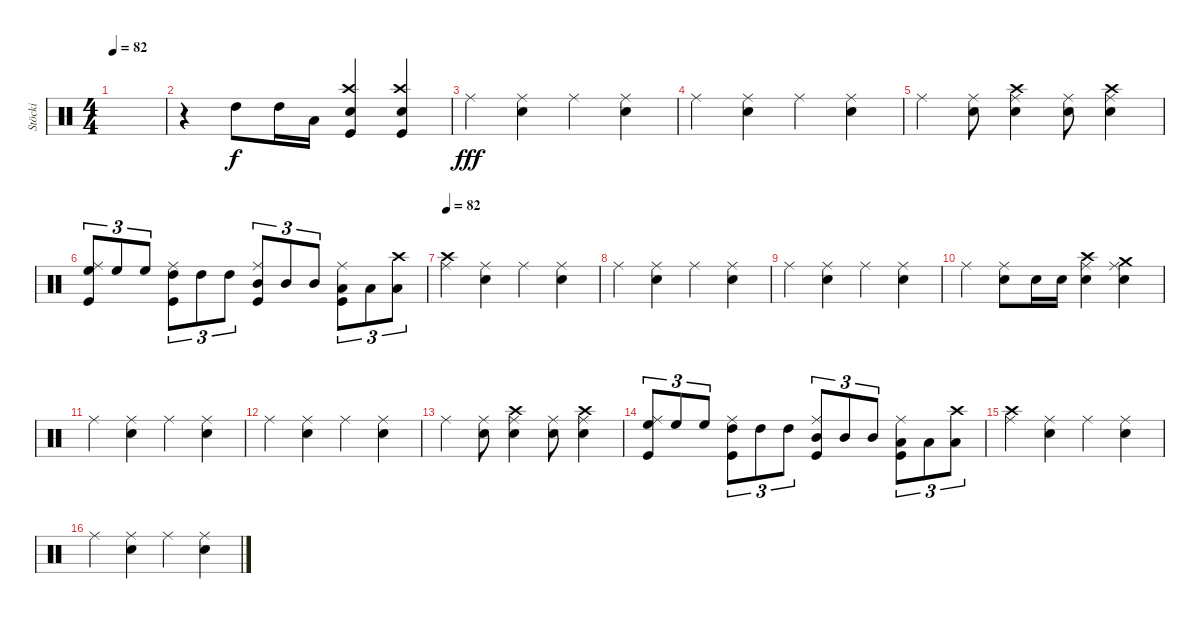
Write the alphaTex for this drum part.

\track ("Stöcki" "Stöcki") {instrument percussion}
\staff {score}
\articulation defaults
\ts (4 4)
\tempo 82
\clef neutral
\ks c
|
r.4 "High Tom (hit)".8{dy f} "High Tom (hit)".16 "Low Tom (hit)".16 ("Snare (hit) 2" "Crash high (hit)" "Kick (hit)").4 ("Snare (hit) 2" "Crash high (hit)" "Kick (hit)").4 |
"Ride (middle)".4{dy fff} ("Ride (middle)" "Snare (hit) 2").4 "Ride (middle)".4 ("Ride (middle)" "Snare (hit) 2").4 |
"Ride (middle)".4 ("Ride (middle)" "Snare (hit) 2").4 "Ride (middle)".4 ("Ride (middle)" "Snare (hit) 2").4 |
"Ride (middle)".4 ("Ride (middle)" "Snare (hit) 2").8 ("Ride (middle)" "Snare (hit) 2" "Crash high (hit)").4 ("Ride (middle)" "Snare (hit) 2").8 ("Ride (middle)" "Snare (hit) 2" "Crash high (hit)").4 |
("High Floor Tom (hit)" "Kick (hit)" "Ride (middle)").8{tu (3 2)} "High Floor Tom (hit)".8{tu (3 2)} "High Floor Tom (hit)".8{tu (3 2)} ("High Tom (hit)" "Kick (hit)" "Ride (middle)").8{tu (3 2)} "High Tom (hit)".8{tu (3 2)} "High Tom (hit)".8{tu (3 2)} ("Mid Tom (hit)" "Kick (hit)" "Ride (middle)").8{tu (3 2)} "Mid Tom (hit)".8{tu (3 2)} "Mid Tom (hit)".8{tu (3 2)} ("Low Tom (hit)" "Kick (hit)" "Ride (middle)").8{tu (3 2)} "Low Tom (hit)".8{tu (3 2)} ("Low Tom (hit)" "Crash high (hit)").8{tu (3 2)} |
\tempo 82
("Ride (middle)" "Crash high (hit)").4 ("Ride (middle)" "Snare (hit) 2").4 "Ride (middle)".4 ("Ride (middle)" "Snare (hit) 2").4 |
"Ride (middle)".4 ("Ride (middle)" "Snare (hit) 2").4 "Ride (middle)".4 ("Ride (middle)" "Snare (hit) 2").4 |
"Ride (middle)".4 ("Ride (middle)" "Snare (hit) 2").4 "Ride (middle)".4 ("Ride (middle)" "Snare (hit) 2").4 |
"Ride (middle)".4 ("Ride (middle)" "Snare (hit) 2").8 "Snare (hit) 2".16 "Snare (hit) 2".16 ("Ride (middle)" "Snare (hit) 2" "Crash high (hit)").4 ("Ride (middle)" "Snare (hit) 2" "Crash medium (hit)").4 |
"Ride (middle)".4 ("Ride (middle)" "Snare (hit) 2").4 "Ride (middle)".4 ("Ride (middle)" "Snare (hit) 2").4 |
"Ride (middle)".4 ("Ride (middle)" "Snare (hit) 2").4 "Ride (middle)".4 ("Ride (middle)" "Snare (hit) 2").4 |
"Ride (middle)".4 ("Ride (middle)" "Snare (hit) 2").8 ("Ride (middle)" "Snare (hit) 2" "Crash high (hit)").4 ("Ride (middle)" "Snare (hit) 2").8 ("Ride (middle)" "Snare (hit) 2" "Crash high (hit)").4 |
("High Floor Tom (hit)" "Kick (hit)" "Ride (middle)").8{tu (3 2)} "High Floor Tom (hit)".8{tu (3 2)} "High Floor Tom (hit)".8{tu (3 2)} ("High Tom (hit)" "Kick (hit)" "Ride (middle)").8{tu (3 2)} "High Tom (hit)".8{tu (3 2)} "High Tom (hit)".8{tu (3 2)} ("Mid Tom (hit)" "Kick (hit)" "Ride (middle)").8{tu (3 2)} "Mid Tom (hit)".8{tu (3 2)} "Mid Tom (hit)".8{tu (3 2)} ("Low Tom (hit)" "Kick (hit)" "Ride (middle)").8{tu (3 2)} "Low Tom (hit)".8{tu (3 2)} ("Low Tom (hit)" "Crash high (hit)").8{tu (3 2)} |
("Ride (middle)" "Crash high (hit)").4 ("Ride (middle)" "Snare (hit) 2").4 "Ride (middle)".4 ("Ride (middle)" "Snare (hit) 2").4 |
"Ride (middle)".4 ("Ride (middle)" "Snare (hit) 2").4 "Ride (middle)".4 ("Ride (middle)" "Snare (hit) 2").4
